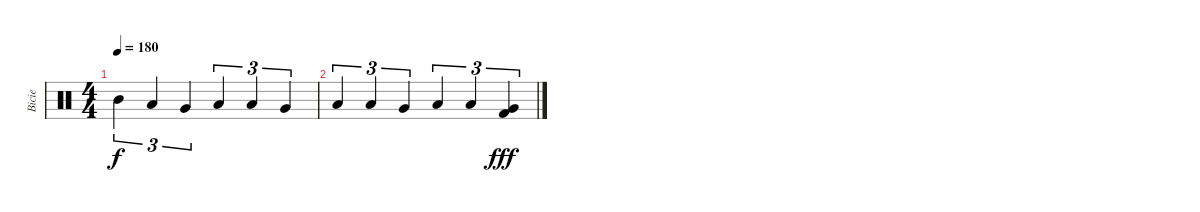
\track ("Bicie" "Bicie") {instrument percussion}
\staff {score}
\articulation defaults
\ts (4 4)
\tempo 180
\clef neutral
\ks c "Mid Tom (hit)".4{tu (3 2) dy f} "Low Tom (hit)".4{tu (3 2)} "Very Low Tom (hit)".4{tu (3 2)} "Low Floor Tom (hit)".4{tu (3 2)} "Low Tom (hit)".4{tu (3 2)} "Very Low Tom (hit)".4{tu (3 2)}
|
"Low Floor Tom (hit)".4{tu (3 2)} "Low Tom (hit)".4{tu (3 2)} "Very Low Tom (hit)".4{tu (3 2)} "Low Floor Tom (hit)".4{tu (3 2)} "Low Tom (hit)".4{tu (3 2)} ("Kick (hit) 2" "Very Low Tom (hit)").4{tu (3 2) dy fff}
